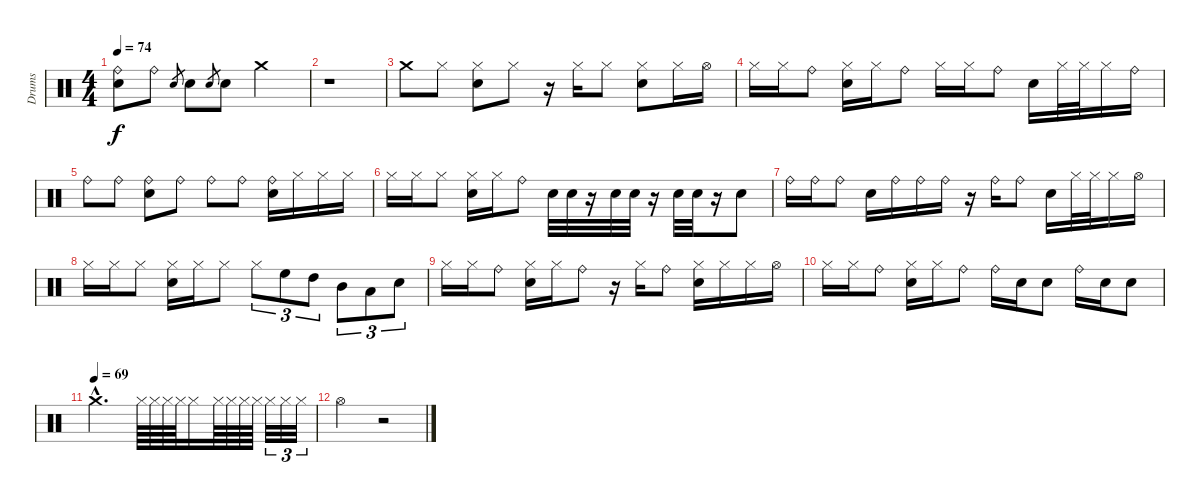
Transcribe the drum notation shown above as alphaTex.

\track ("Drums" "Drums") {instrument percussion}
\staff {score}
\articulation defaults
\ts (4 4)
\tempo 74
\clef neutral
\ks c
("Ride (bell)" "Electric Snare (hit)").8{dy f} "Ride (bell)".8 "Electric Snare (hit)".8{gr} "Electric Snare (hit)".8 "Electric Snare (hit)".8{gr} "Electric Snare (hit)".8 "Crash medium (hit)".2 |
r.1 |
"Crash medium (hit)".8 "Hi-Hat (closed)".8 ("Hi-Hat (closed)" "Electric Snare (hit)").8 "Hi-Hat (closed)".8 r.16 "Hi-Hat (closed)".16 "Hi-Hat (closed)".8 ("Hi-Hat (closed)" "Electric Snare (hit)").8 "Hi-Hat (closed)".16 "Hi-Hat (open)".16 |
"Hi-Hat (closed)".16 "Hi-Hat (closed)".16 "Ride (bell)".8 ("Hi-Hat (closed)" "Electric Snare (hit)").16 "Hi-Hat (closed)".16 "Ride (bell)".8 "Hi-Hat (closed)".16 "Hi-Hat (closed)".16 "Ride (bell)".8 "Electric Snare (hit)".16 "Hi-Hat (closed)".32 "Hi-Hat (closed)".32 "Hi-Hat (closed)".16 "Ride (bell)".16 |
"Ride (bell)".8 "Ride (bell)".8 ("Ride (bell)" "Electric Snare (hit)").8 "Ride (bell)".8 "Ride (bell)".8 "Ride (bell)".8 ("Ride (bell)" "Electric Snare (hit)").16 "Hi-Hat (closed)".16 "Hi-Hat (closed)".16 "Hi-Hat (closed)".16 |
"Hi-Hat (closed)".16 "Hi-Hat (closed)".16 "Hi-Hat (closed)".8 ("Hi-Hat (closed)" "Electric Snare (hit)").16 "Hi-Hat (closed)".16 "Ride (bell)".8 "Electric Snare (hit)".32 "Electric Snare (hit)".32 r.16 "Electric Snare (hit)".32 "Electric Snare (hit)".32 r.16 "Electric Snare (hit)".32 "Electric Snare (hit)".32 r.16 "Electric Snare (hit)".8 |
"Ride (bell)".16 "Ride (bell)".16 "Ride (bell)".8 "Electric Snare (hit)".16 "Ride (bell)".16 "Ride (bell)".16 "Ride (bell)".16 r.16 "Ride (bell)".16 "Ride (bell)".8 "Electric Snare (hit)".16 "Hi-Hat (closed)".32 "Hi-Hat (closed)".32 "Hi-Hat (closed)".16 "Hi-Hat (open)".16 |
"Hi-Hat (closed)".16 "Hi-Hat (closed)".16 "Hi-Hat (closed)".8 ("Hi-Hat (closed)" "Electric Snare (hit)").16 "Hi-Hat (closed)".16 "Hi-Hat (closed)".8 "Hi-Hat (closed)".8{tu (3 2)} "High Floor Tom (hit)".8{tu (3 2)} "High Tom (hit)".8{tu (3 2)} "Mid Tom (hit)".8{tu (3 2)} "Low Tom (hit)".8{tu (3 2)} "Electric Snare (hit)".8{tu (3 2)} |
"Hi-Hat (closed)".16 "Hi-Hat (closed)".16 "Ride (bell)".8 ("Hi-Hat (closed)" "Electric Snare (hit)").16 "Hi-Hat (closed)".16 "Ride (bell)".8 r.16 "Hi-Hat (closed)".16 "Ride (bell)".8 ("Hi-Hat (closed)" "Electric Snare (hit)").16 "Hi-Hat (closed)".16 "Hi-Hat (closed)".16 "Hi-Hat (open)".16 |
"Hi-Hat (closed)".16 "Hi-Hat (closed)".16 "Ride (bell)".8 ("Hi-Hat (closed)" "Electric Snare (hit)").16 "Hi-Hat (closed)".16 "Ride (bell)".8 "Ride (bell)".16 "Electric Snare (hit)".16 "Electric Snare (hit)".8 "Ride (bell)".16 "Electric Snare (hit)".16 "Electric Snare (hit)".8 |
\tempo (69)
"Crash medium (hit)"{hac}.2{d} "Hi-Hat (closed)".64 "Hi-Hat (closed)".64 "Hi-Hat (closed)".64 "Hi-Hat (closed)".64 "Hi-Hat (closed)".16 "Hi-Hat (closed)".64 "Hi-Hat (closed)".64 "Hi-Hat (closed)".64 "Hi-Hat (closed)".64 "Hi-Hat (closed)".32{tu (3 2)} "Hi-Hat (closed)".32{tu (3 2)} "Hi-Hat (closed)".32{tu (3 2)} |
"Hi-Hat (open)".2 r.2
